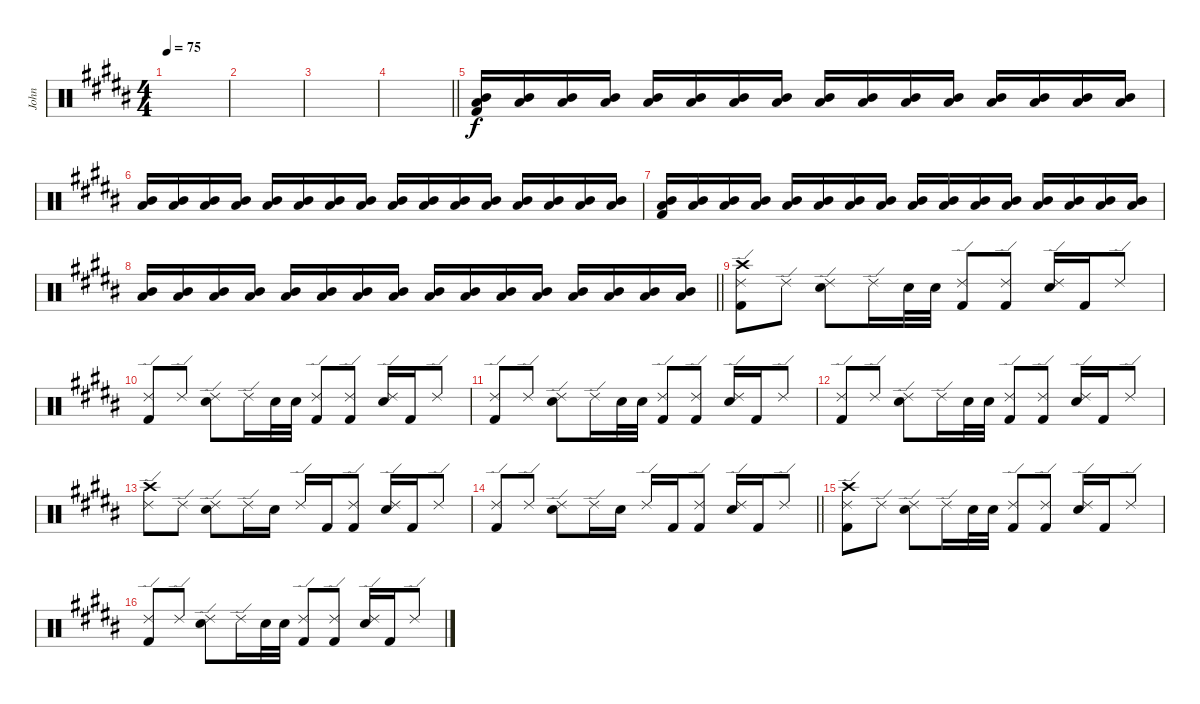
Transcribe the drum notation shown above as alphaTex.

\track ("John" "John") {instrument percussion}
\staff {score}
\articulation defaults
\ts (4 4)
\tempo 75
\clef neutral
\ks g#minor
|
|
|
\barLineRight lightlight
|
("Kick (hit) 2" "Mid Tom (hit)" "Low Tom (hit)").16 ("Mid Tom (hit)" "Low Tom (hit)").16 ("Mid Tom (hit)" "Low Tom (hit)").16 ("Mid Tom (hit)" "Low Tom (hit)").16 ("Mid Tom (hit)" "Low Tom (hit)").16 ("Mid Tom (hit)" "Low Tom (hit)").16 ("Mid Tom (hit)" "Low Tom (hit)").16 ("Mid Tom (hit)" "Low Tom (hit)").16 ("Mid Tom (hit)" "Low Tom (hit)").16 ("Mid Tom (hit)" "Low Tom (hit)").16 ("Mid Tom (hit)" "Low Tom (hit)").16 ("Mid Tom (hit)" "Low Tom (hit)").16 ("Mid Tom (hit)" "Low Tom (hit)").16 ("Mid Tom (hit)" "Low Tom (hit)").16 ("Mid Tom (hit)" "Low Tom (hit)").16 ("Mid Tom (hit)" "Low Tom (hit)").16 |
("Mid Tom (hit)" "Low Tom (hit)").16 ("Mid Tom (hit)" "Low Tom (hit)").16 ("Mid Tom (hit)" "Low Tom (hit)").16 ("Mid Tom (hit)" "Low Tom (hit)").16 ("Mid Tom (hit)" "Low Tom (hit)").16 ("Mid Tom (hit)" "Low Tom (hit)").16 ("Mid Tom (hit)" "Low Tom (hit)").16 ("Mid Tom (hit)" "Low Tom (hit)").16 ("Mid Tom (hit)" "Low Tom (hit)").16 ("Mid Tom (hit)" "Low Tom (hit)").16 ("Mid Tom (hit)" "Low Tom (hit)").16 ("Mid Tom (hit)" "Low Tom (hit)").16 ("Mid Tom (hit)" "Low Tom (hit)").16 ("Mid Tom (hit)" "Low Tom (hit)").16 ("Mid Tom (hit)" "Low Tom (hit)").16 ("Mid Tom (hit)" "Low Tom (hit)").16 |
("Kick (hit) 2" "Mid Tom (hit)" "Low Tom (hit)").16 ("Mid Tom (hit)" "Low Tom (hit)").16 ("Mid Tom (hit)" "Low Tom (hit)").16 ("Mid Tom (hit)" "Low Tom (hit)").16 ("Mid Tom (hit)" "Low Tom (hit)").16 ("Mid Tom (hit)" "Low Tom (hit)").16 ("Mid Tom (hit)" "Low Tom (hit)").16 ("Mid Tom (hit)" "Low Tom (hit)").16 ("Mid Tom (hit)" "Low Tom (hit)").16 ("Mid Tom (hit)" "Low Tom (hit)").16 ("Mid Tom (hit)" "Low Tom (hit)").16 ("Mid Tom (hit)" "Low Tom (hit)").16 ("Mid Tom (hit)" "Low Tom (hit)").16 ("Mid Tom (hit)" "Low Tom (hit)").16 ("Mid Tom (hit)" "Low Tom (hit)").16 ("Mid Tom (hit)" "Low Tom (hit)").16 |
\barLineRight lightlight
("Mid Tom (hit)" "Low Tom (hit)").16 ("Mid Tom (hit)" "Low Tom (hit)").16 ("Mid Tom (hit)" "Low Tom (hit)").16 ("Mid Tom (hit)" "Low Tom (hit)").16 ("Mid Tom (hit)" "Low Tom (hit)").16 ("Mid Tom (hit)" "Low Tom (hit)").16 ("Mid Tom (hit)" "Low Tom (hit)").16 ("Mid Tom (hit)" "Low Tom (hit)").16 ("Mid Tom (hit)" "Low Tom (hit)").16 ("Mid Tom (hit)" "Low Tom (hit)").16 ("Mid Tom (hit)" "Low Tom (hit)").16 ("Mid Tom (hit)" "Low Tom (hit)").16 ("Mid Tom (hit)" "Low Tom (hit)").16 ("Mid Tom (hit)" "Low Tom (hit)").16 ("Mid Tom (hit)" "Low Tom (hit)").16 ("Mid Tom (hit)" "Low Tom (hit)").16 |
("Kick (hit) 2" "Ride (edge) 2" "Crash high (hit)").8 "Ride (edge) 2".8 ("Ride (edge) 2" "Snare (hit) 2").8 "Ride (edge) 2".16 "Snare (hit) 2".32 "Snare (hit) 2".32 ("Kick (hit) 2" "Ride (edge) 2").8 ("Kick (hit) 2" "Ride (edge) 2").8 ("Ride (edge) 2" "Snare (hit) 2").16 "Kick (hit) 2".16 "Ride (edge) 2".8 |
("Kick (hit) 2" "Ride (edge) 2").8 "Ride (edge) 2".8 ("Ride (edge) 2" "Snare (hit) 2").8 "Ride (edge) 2".16 "Snare (hit) 2".32 "Snare (hit) 2".32 ("Kick (hit) 2" "Ride (edge) 2").8 ("Kick (hit) 2" "Ride (edge) 2").8 ("Ride (edge) 2" "Snare (hit) 2").16 "Kick (hit) 2".16 "Ride (edge) 2".8 |
("Kick (hit) 2" "Ride (edge) 2").8 "Ride (edge) 2".8 ("Ride (edge) 2" "Snare (hit) 2").8 "Ride (edge) 2".16 "Snare (hit) 2".32 "Snare (hit) 2".32 ("Kick (hit) 2" "Ride (edge) 2").8 ("Kick (hit) 2" "Ride (edge) 2").8 ("Ride (edge) 2" "Snare (hit) 2").16 "Kick (hit) 2".16 "Ride (edge) 2".8 |
("Kick (hit) 2" "Ride (edge) 2").8 "Ride (edge) 2".8 ("Ride (edge) 2" "Snare (hit) 2").8 "Ride (edge) 2".16 "Snare (hit) 2".32 "Snare (hit) 2".32 ("Kick (hit) 2" "Ride (edge) 2").8 ("Kick (hit) 2" "Ride (edge) 2").8 ("Ride (edge) 2" "Snare (hit) 2").16 "Kick (hit) 2".16 "Ride (edge) 2".8 |
("Ride (edge) 2" "Crash high (hit)").8 "Ride (edge) 2".8 ("Ride (edge) 2" "Snare (hit) 2").8 "Ride (edge) 2".16 "Snare (hit) 2".16 "Ride (edge) 2".16 "Kick (hit) 2".16 ("Kick (hit) 2" "Ride (edge) 2").8 ("Ride (edge) 2" "Snare (hit) 2").16 "Kick (hit) 2".16 "Ride (edge) 2".8 |
\barLineRight lightlight
("Kick (hit) 2" "Ride (edge) 2").8 "Ride (edge) 2".8 ("Ride (edge) 2" "Snare (hit) 2").8 "Ride (edge) 2".16 "Snare (hit) 2".16 "Ride (edge) 2".16 "Kick (hit) 2".16 ("Kick (hit) 2" "Ride (edge) 2").8 ("Ride (edge) 2" "Snare (hit) 2").16 "Kick (hit) 2".16 "Ride (edge) 2".8 |
("Kick (hit) 2" "Ride (edge) 2" "Crash high (hit)").8 "Ride (edge) 2".8 ("Ride (edge) 2" "Snare (hit) 2").8 "Ride (edge) 2".16 "Snare (hit) 2".32 "Snare (hit) 2".32 ("Kick (hit) 2" "Ride (edge) 2").8 ("Kick (hit) 2" "Ride (edge) 2").8 ("Ride (edge) 2" "Snare (hit) 2").16 "Kick (hit) 2".16 "Ride (edge) 2".8 |
("Kick (hit) 2" "Ride (edge) 2").8 "Ride (edge) 2".8 ("Ride (edge) 2" "Snare (hit) 2").8 "Ride (edge) 2".16 "Snare (hit) 2".32 "Snare (hit) 2".32 ("Kick (hit) 2" "Ride (edge) 2").8 ("Kick (hit) 2" "Ride (edge) 2").8 ("Ride (edge) 2" "Snare (hit) 2").16 "Kick (hit) 2".16 "Ride (edge) 2".8
